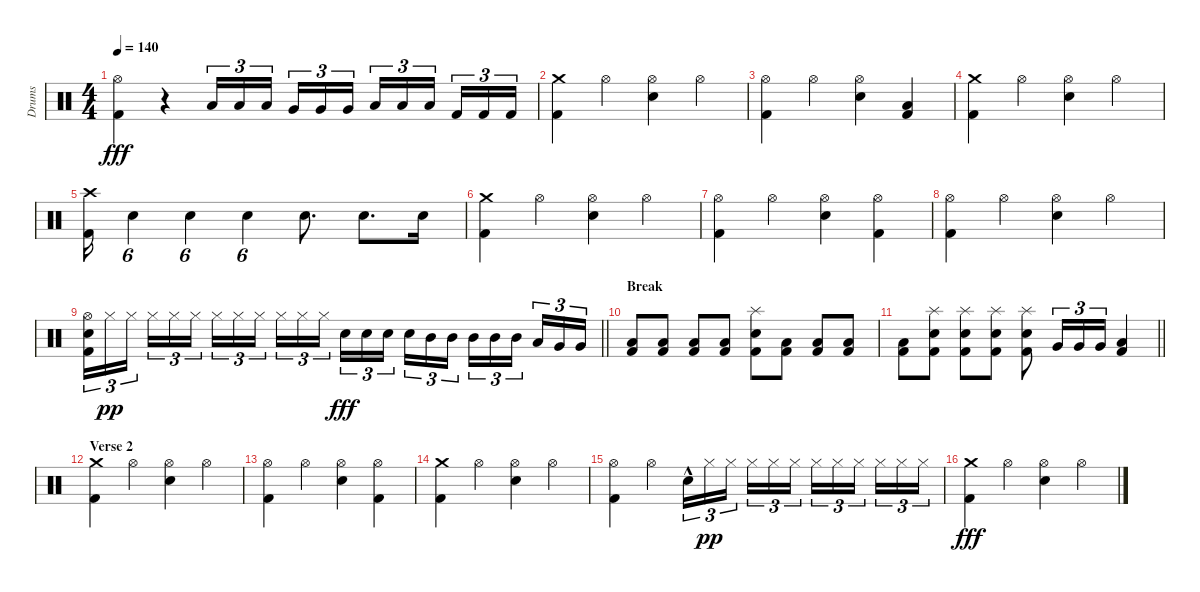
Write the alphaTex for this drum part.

\track ("Drums" "Drums") {instrument percussion}
\staff {score}
\articulation defaults
\ts (4 4)
\tempo 140
\clef neutral
\ks c
("Hi-Hat (open)" "Kick (hit) 2").4{dy fff} r.4 "Low Tom (hit)".16{tu (3 2)} "Low Tom (hit)".16{tu (3 2)} "Low Tom (hit)".16{tu (3 2) beam splitsecondary} "Very Low Tom (hit)".16{tu (3 2)} "Very Low Tom (hit)".16{tu (3 2)} "Very Low Tom (hit)".16{tu (3 2)} "Low Floor Tom (hit)".16{tu (3 2)} "Low Floor Tom (hit)".16{tu (3 2)} "Low Floor Tom (hit)".16{tu (3 2) beam splitsecondary} "Kick (hit) 2".16{tu (3 2)} "Kick (hit) 2".16{tu (3 2)} "Kick (hit) 2".16{tu (3 2)} |
("Crash medium (hit)" "Kick (hit) 2").4 "Hi-Hat (open)".4 ("Hi-Hat (open)" "Electric Snare (hit)").4 "Hi-Hat (open)".4 |
("Hi-Hat (open)" "Kick (hit) 2").4 "Hi-Hat (open)".4 ("Hi-Hat (open)" "Electric Snare (hit)").4 ("Low Floor Tom (hit)" "Kick (hit) 2").4 |
("Crash medium (hit)" "Kick (hit) 2").4 "Hi-Hat (open)".4 ("Hi-Hat (open)" "Electric Snare (hit)").4 "Hi-Hat (open)".4 |
("Crash high (hit)" "Kick (hit) 2").16 "Electric Snare (hit)".4{tu (6 4)} "Electric Snare (hit)".4{tu (6 4)} "Electric Snare (hit)".4{tu (6 4)} "Electric Snare (hit)".8{d} "Electric Snare (hit)".8{d} "Electric Snare (hit)".16 |
("Crash medium (hit)" "Kick (hit) 2").4 "Hi-Hat (open)".4 ("Hi-Hat (open)" "Electric Snare (hit)").4 "Hi-Hat (open)".4 |
("Hi-Hat (open)" "Kick (hit) 2").4 "Hi-Hat (open)".4 ("Hi-Hat (open)" "Electric Snare (hit)").4 ("Hi-Hat (open)" "Kick (hit) 2").4 |
("Hi-Hat (open)" "Kick (hit) 2").4 "Hi-Hat (open)".4 ("Hi-Hat (open)" "Electric Snare (hit)").4 "Hi-Hat (open)".4 |
\barLineRight lightlight
("Hi-Hat (open)" "Electric Snare (hit)" "Kick (hit) 2").16{tu (3 2)} "Hi-Hat (closed)".16{tu (3 2) dy pp} "Hi-Hat (closed)".16{tu (3 2) beam splitsecondary} "Hi-Hat (closed)".16{tu (3 2)} "Hi-Hat (closed)".16{tu (3 2)} "Hi-Hat (closed)".16{tu (3 2)} "Hi-Hat (closed)".16{tu (3 2)} "Hi-Hat (closed)".16{tu (3 2)} "Hi-Hat (closed)".16{tu (3 2) beam splitsecondary} "Hi-Hat (closed)".16{tu (3 2)} "Hi-Hat (closed)".16{tu (3 2)} "Hi-Hat (closed)".16{tu (3 2)} "Electric Snare (hit)".16{tu (3 2) dy fff} "Electric Snare (hit)".16{tu (3 2)} "Electric Snare (hit)".16{tu (3 2) beam splitsecondary} "Electric Snare (hit)".16{tu (3 2)} "Mid Tom (hit)".16{tu (3 2)} "Mid Tom (hit)".16{tu (3 2)} "Mid Tom (hit)".16{tu (3 2)} "Mid Tom (hit)".16{tu (3 2)} "Mid Tom (hit)".16{tu (3 2) beam splitsecondary} "Low Tom (hit)".16{tu (3 2)} "Very Low Tom (hit)".16{tu (3 2)} "Very Low Tom (hit)".16{tu (3 2)} |
\section ("" "Break")
("Low Floor Tom (hit)" "Kick (hit) 2").8 ("Low Floor Tom (hit)" "Kick (hit) 2").8 ("Low Floor Tom (hit)" "Kick (hit) 2").8 ("Low Floor Tom (hit)" "Kick (hit) 2").8 ("Splash (hit)" "Electric Snare (hit)" "Kick (hit) 2").8 ("Low Floor Tom (hit)" "Kick (hit) 2").8 ("Low Floor Tom (hit)" "Kick (hit) 2").8 ("Low Floor Tom (hit)" "Kick (hit) 2").8 |
\barLineRight lightlight
("Low Floor Tom (hit)" "Kick (hit) 2").8 ("Splash (hit)" "Electric Snare (hit)" "Kick (hit) 2").8 ("Splash (hit)" "Electric Snare (hit)" "Kick (hit) 2").8 ("Splash (hit)" "Electric Snare (hit)" "Kick (hit) 2").8 ("Splash (hit)" "Electric Snare (hit)" "Kick (hit) 2").8 "Very Low Tom (hit)".16{tu (3 2)} "Very Low Tom (hit)".16{tu (3 2)} "Very Low Tom (hit)".16{tu (3 2)} ("Low Floor Tom (hit)" "Kick (hit) 2").4 |
\section ("" "Verse 2")
("Crash medium (hit)" "Kick (hit) 2").4 "Hi-Hat (open)".4 ("Hi-Hat (open)" "Electric Snare (hit)").4 "Hi-Hat (open)".4 |
("Hi-Hat (open)" "Kick (hit) 2").4 "Hi-Hat (open)".4 ("Hi-Hat (open)" "Electric Snare (hit)").4 ("Hi-Hat (open)" "Kick (hit) 2").4 |
("Crash medium (hit)" "Kick (hit) 2").4 "Hi-Hat (open)".4 ("Hi-Hat (open)" "Electric Snare (hit)").4 "Hi-Hat (open)".4 |
("Hi-Hat (open)" "Kick (hit) 2").4 "Hi-Hat (open)".4 "Electric Snare (hit)"{hac}.16{tu (3 2)} "Hi-Hat (closed)".16{tu (3 2) dy pp} "Hi-Hat (closed)".16{tu (3 2) beam splitsecondary} "Hi-Hat (closed)".16{tu (3 2)} "Hi-Hat (closed)".16{tu (3 2)} "Hi-Hat (closed)".16{tu (3 2)} "Hi-Hat (closed)".16{tu (3 2)} "Hi-Hat (closed)".16{tu (3 2)} "Hi-Hat (closed)".16{tu (3 2) beam splitsecondary} "Hi-Hat (closed)".16{tu (3 2)} "Hi-Hat (closed)".16{tu (3 2)} "Hi-Hat (closed)".16{tu (3 2)} |
("Crash medium (hit)" "Kick (hit) 2").4{dy fff} "Hi-Hat (open)".4 ("Hi-Hat (open)" "Electric Snare (hit)").4 "Hi-Hat (open)".4
